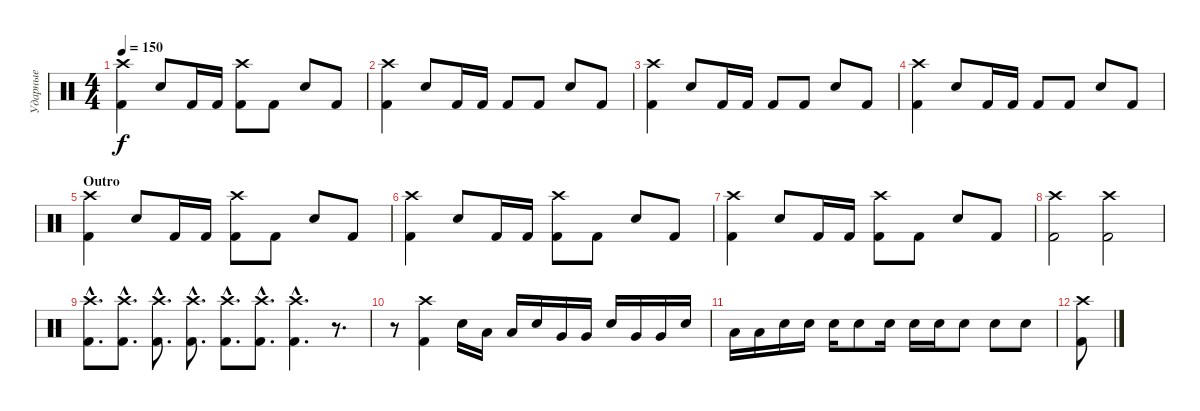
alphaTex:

\track ("Ударные" "Ударные") {instrument percussion}
\staff {score}
\articulation defaults
\ts (4 4)
\tempo 150
\clef neutral
\ks c
("Crash high (hit)" "Kick (hit) 2").4{dy f} "Electric Snare (hit)".8 "Kick (hit) 2".16 "Kick (hit) 2".16 ("Kick (hit) 2" "Crash high (hit)").8 "Kick (hit) 2".8 "Electric Snare (hit)".8 "Kick (hit) 2".8 |
("Crash high (hit)" "Kick (hit) 2").4 "Electric Snare (hit)".8 "Kick (hit) 2".16 "Kick (hit) 2".16 "Kick (hit) 2".8 "Kick (hit) 2".8 "Electric Snare (hit)".8 "Kick (hit) 2".8 |
("Crash high (hit)" "Kick (hit) 2").4 "Electric Snare (hit)".8 "Kick (hit) 2".16 "Kick (hit) 2".16 "Kick (hit) 2".8 "Kick (hit) 2".8 "Electric Snare (hit)".8 "Kick (hit) 2".8 |
("Crash high (hit)" "Kick (hit) 2").4 "Electric Snare (hit)".8 "Kick (hit) 2".16 "Kick (hit) 2".16 "Kick (hit) 2".8 "Kick (hit) 2".8 "Electric Snare (hit)".8 "Kick (hit) 2".8 |
\section ("" "Outro")
("Crash high (hit)" "Kick (hit) 2").4 "Electric Snare (hit)".8 "Kick (hit) 2".16 "Kick (hit) 2".16 ("Crash high (hit)" "Kick (hit) 2").8 "Kick (hit) 2".8 "Electric Snare (hit)".8 "Kick (hit) 2".8 |
("Crash high (hit)" "Kick (hit) 2").4 "Electric Snare (hit)".8 "Kick (hit) 2".16 "Kick (hit) 2".16 ("Crash high (hit)" "Kick (hit) 2").8 "Kick (hit) 2".8 "Electric Snare (hit)".8 "Kick (hit) 2".8 |
("Crash high (hit)" "Kick (hit) 2").4 "Electric Snare (hit)".8 "Kick (hit) 2".16 "Kick (hit) 2".16 ("Crash high (hit)" "Kick (hit) 2").8 "Kick (hit) 2".8 "Electric Snare (hit)".8 "Kick (hit) 2".8 |
("Crash high (hit)" "Kick (hit) 2").2 ("Crash high (hit)" "Kick (hit) 2").2 |
("Crash high (hit)"{hac} "Kick (hit) 2"{hac}).8{d} ("Crash high (hit)"{hac} "Kick (hit) 2"{hac}).8{d} ("Crash high (hit)"{hac} "Kick (hit) 2"{hac}).8{d} ("Crash high (hit)"{hac} "Kick (hit) 2"{hac}).8{d} ("Crash high (hit)"{hac} "Kick (hit) 2"{hac}).8{d} ("Crash high (hit)"{hac} "Kick (hit) 2"{hac}).8{d} ("Crash high (hit)"{hac} "Kick (hit) 2"{hac}).4{d} r.8{d} |
r.8 ("Crash high (hit)" "Kick (hit) 2").4 "Electric Snare (hit)".16 "Low Tom (hit)".16 "Low Tom (hit)".16 "Electric Snare (hit)".16 "Very Low Tom (hit)".16 "Very Low Tom (hit)".16 "Electric Snare (hit)".16 "Very Low Tom (hit)".16 "Very Low Tom (hit)".16 "Electric Snare (hit)".16 |
"Low Tom (hit)".16 "Low Tom (hit)".16 "Electric Snare (hit)".16 "Electric Snare (hit)".16 "Electric Snare (hit)".16 "Electric Snare (hit)".8 "Electric Snare (hit)".16 "Electric Snare (hit)".16 "Electric Snare (hit)".16 "Electric Snare (hit)".8 "Electric Snare (hit)".8 "Electric Snare (hit)".8 |
("Crash high (hit)" "Kick (hit) 2").8
